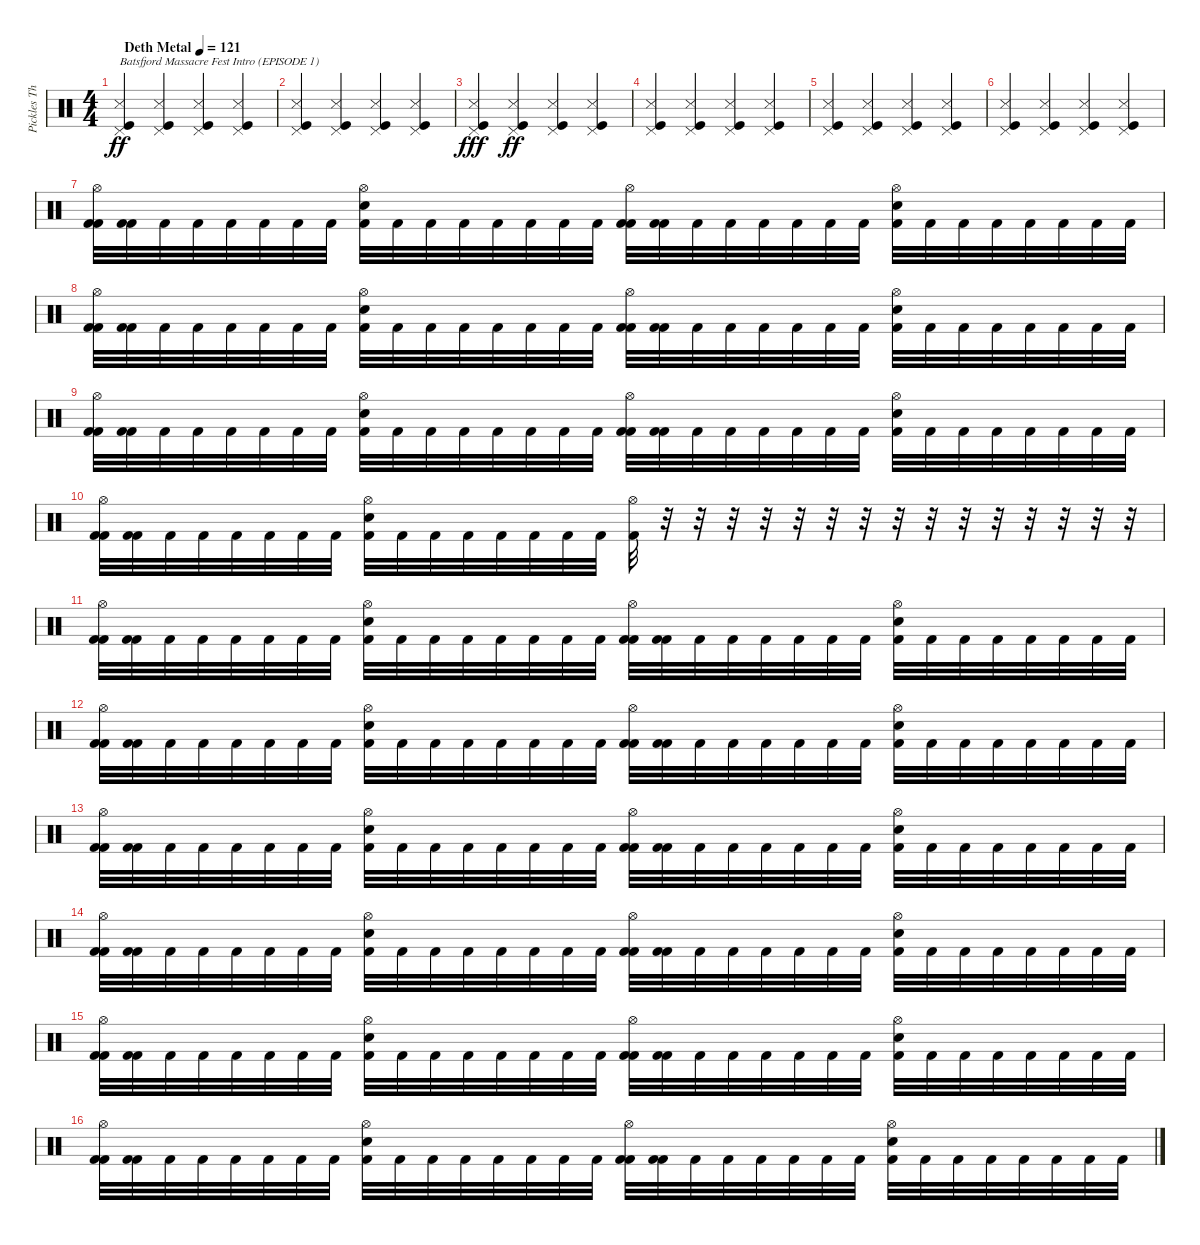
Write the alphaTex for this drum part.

\track ("Pickles The Drummer" "Pickles Th") {instrument percussion bank 4}
\staff {score}
\articulation defaults
\ts (4 4)
\tempo (121 "Deth Metal")
\clef neutral
\ks c
("Pedal Hi-Hat (hit)" "Snare (side stick) 3" "Kick (hit)").4{txt "Batsfjord Massacre Fest Intro (EPISODE 1)" dy ff} ("Pedal Hi-Hat (hit)" "Snare (side stick) 3" "Kick (hit)").4 ("Pedal Hi-Hat (hit)" "Snare (side stick) 3" "Kick (hit)").4 ("Pedal Hi-Hat (hit)" "Snare (side stick) 3" "Kick (hit)").4 |
("Pedal Hi-Hat (hit)" "Snare (side stick) 3" "Kick (hit)").4 ("Pedal Hi-Hat (hit)" "Snare (side stick) 3" "Kick (hit)").4 ("Pedal Hi-Hat (hit)" "Snare (side stick) 3" "Kick (hit)").4 ("Pedal Hi-Hat (hit)" "Snare (side stick) 3" "Kick (hit)").4 |
("Pedal Hi-Hat (hit)" "Snare (side stick) 3" "Kick (hit)").4{dy fff} ("Pedal Hi-Hat (hit)" "Snare (side stick) 3" "Kick (hit)").4{dy ff} ("Pedal Hi-Hat (hit)" "Snare (side stick) 3" "Kick (hit)").4 ("Pedal Hi-Hat (hit)" "Snare (side stick) 3" "Kick (hit)").4 |
("Pedal Hi-Hat (hit)" "Snare (side stick) 3" "Kick (hit)").4 ("Pedal Hi-Hat (hit)" "Snare (side stick) 3" "Kick (hit)").4 ("Pedal Hi-Hat (hit)" "Snare (side stick) 3" "Kick (hit)").4 ("Pedal Hi-Hat (hit)" "Snare (side stick) 3" "Kick (hit)").4 |
("Pedal Hi-Hat (hit)" "Snare (side stick) 3" "Kick (hit)").4 ("Pedal Hi-Hat (hit)" "Snare (side stick) 3" "Kick (hit)").4 ("Pedal Hi-Hat (hit)" "Snare (side stick) 3" "Kick (hit)").4 ("Pedal Hi-Hat (hit)" "Snare (side stick) 3" "Kick (hit)").4 |
("Pedal Hi-Hat (hit)" "Snare (side stick) 3" "Kick (hit)").4 ("Pedal Hi-Hat (hit)" "Snare (side stick) 3" "Kick (hit)").4 ("Pedal Hi-Hat (hit)" "Snare (side stick) 3" "Kick (hit)").4 ("Pedal Hi-Hat (hit)" "Snare (side stick) 3" "Kick (hit)").4 |
("Hi-Hat (open)" "Kick (hit) 2" "Kick (hit) 2").32 ("Kick (hit) 2" "Kick (hit) 2").32 "Kick (hit) 2".32 "Kick (hit) 2".32 "Kick (hit) 2".32 "Kick (hit) 2".32 "Kick (hit) 2".32 "Kick (hit) 2".32 ("Hi-Hat (open)" "Snare (hit) 2" "Kick (hit) 2").32 "Kick (hit) 2".32 "Kick (hit) 2".32 "Kick (hit) 2".32 "Kick (hit) 2".32 "Kick (hit) 2".32 "Kick (hit) 2".32 "Kick (hit) 2".32 ("Hi-Hat (open)" "Kick (hit) 2" "Kick (hit) 2").32 ("Kick (hit) 2" "Kick (hit) 2").32 "Kick (hit) 2".32 "Kick (hit) 2".32 "Kick (hit) 2".32 "Kick (hit) 2".32 "Kick (hit) 2".32 "Kick (hit) 2".32 ("Hi-Hat (open)" "Snare (hit) 2" "Kick (hit) 2").32 "Kick (hit) 2".32 "Kick (hit) 2".32 "Kick (hit) 2".32 "Kick (hit) 2".32 "Kick (hit) 2".32 "Kick (hit) 2".32 "Kick (hit) 2".32 |
("Hi-Hat (open)" "Kick (hit) 2" "Kick (hit) 2").32 ("Kick (hit) 2" "Kick (hit) 2").32 "Kick (hit) 2".32 "Kick (hit) 2".32 "Kick (hit) 2".32 "Kick (hit) 2".32 "Kick (hit) 2".32 "Kick (hit) 2".32 ("Hi-Hat (open)" "Snare (hit) 2" "Kick (hit) 2").32 "Kick (hit) 2".32 "Kick (hit) 2".32 "Kick (hit) 2".32 "Kick (hit) 2".32 "Kick (hit) 2".32 "Kick (hit) 2".32 "Kick (hit) 2".32 ("Hi-Hat (open)" "Kick (hit) 2" "Kick (hit) 2").32 ("Kick (hit) 2" "Kick (hit) 2").32 "Kick (hit) 2".32 "Kick (hit) 2".32 "Kick (hit) 2".32 "Kick (hit) 2".32 "Kick (hit) 2".32 "Kick (hit) 2".32 ("Hi-Hat (open)" "Snare (hit) 2" "Kick (hit) 2").32 "Kick (hit) 2".32 "Kick (hit) 2".32 "Kick (hit) 2".32 "Kick (hit) 2".32 "Kick (hit) 2".32 "Kick (hit) 2".32 "Kick (hit) 2".32 |
("Hi-Hat (open)" "Kick (hit) 2" "Kick (hit) 2").32 ("Kick (hit) 2" "Kick (hit) 2").32 "Kick (hit) 2".32 "Kick (hit) 2".32 "Kick (hit) 2".32 "Kick (hit) 2".32 "Kick (hit) 2".32 "Kick (hit) 2".32 ("Hi-Hat (open)" "Snare (hit) 2" "Kick (hit) 2").32 "Kick (hit) 2".32 "Kick (hit) 2".32 "Kick (hit) 2".32 "Kick (hit) 2".32 "Kick (hit) 2".32 "Kick (hit) 2".32 "Kick (hit) 2".32 ("Hi-Hat (open)" "Kick (hit) 2" "Kick (hit) 2").32 ("Kick (hit) 2" "Kick (hit) 2").32 "Kick (hit) 2".32 "Kick (hit) 2".32 "Kick (hit) 2".32 "Kick (hit) 2".32 "Kick (hit) 2".32 "Kick (hit) 2".32 ("Hi-Hat (open)" "Snare (hit) 2" "Kick (hit) 2").32 "Kick (hit) 2".32 "Kick (hit) 2".32 "Kick (hit) 2".32 "Kick (hit) 2".32 "Kick (hit) 2".32 "Kick (hit) 2".32 "Kick (hit) 2".32 |
("Hi-Hat (open)" "Kick (hit) 2" "Kick (hit) 2").32 ("Kick (hit) 2" "Kick (hit) 2").32 "Kick (hit) 2".32 "Kick (hit) 2".32 "Kick (hit) 2".32 "Kick (hit) 2".32 "Kick (hit) 2".32 "Kick (hit) 2".32 ("Hi-Hat (open)" "Snare (hit) 2" "Kick (hit) 2").32 "Kick (hit) 2".32 "Kick (hit) 2".32 "Kick (hit) 2".32 "Kick (hit) 2".32 "Kick (hit) 2".32 "Kick (hit) 2".32 "Kick (hit) 2".32 ("Hi-Hat (open)" "Kick (hit) 2").32 r.32 r.32 r.32 r.32 r.32 r.32 r.32 r.32 r.32 r.32 r.32 r.32 r.32 r.32 r.32 |
("Hi-Hat (open)" "Kick (hit) 2" "Kick (hit) 2").32 ("Kick (hit) 2" "Kick (hit) 2").32 "Kick (hit) 2".32 "Kick (hit) 2".32 "Kick (hit) 2".32 "Kick (hit) 2".32 "Kick (hit) 2".32 "Kick (hit) 2".32 ("Hi-Hat (open)" "Snare (hit) 2" "Kick (hit) 2").32 "Kick (hit) 2".32 "Kick (hit) 2".32 "Kick (hit) 2".32 "Kick (hit) 2".32 "Kick (hit) 2".32 "Kick (hit) 2".32 "Kick (hit) 2".32 ("Hi-Hat (open)" "Kick (hit) 2" "Kick (hit) 2").32 ("Kick (hit) 2" "Kick (hit) 2").32 "Kick (hit) 2".32 "Kick (hit) 2".32 "Kick (hit) 2".32 "Kick (hit) 2".32 "Kick (hit) 2".32 "Kick (hit) 2".32 ("Hi-Hat (open)" "Snare (hit) 2" "Kick (hit) 2").32 "Kick (hit) 2".32 "Kick (hit) 2".32 "Kick (hit) 2".32 "Kick (hit) 2".32 "Kick (hit) 2".32 "Kick (hit) 2".32 "Kick (hit) 2".32 |
("Hi-Hat (open)" "Kick (hit) 2" "Kick (hit) 2").32 ("Kick (hit) 2" "Kick (hit) 2").32 "Kick (hit) 2".32 "Kick (hit) 2".32 "Kick (hit) 2".32 "Kick (hit) 2".32 "Kick (hit) 2".32 "Kick (hit) 2".32 ("Hi-Hat (open)" "Snare (hit) 2" "Kick (hit) 2").32 "Kick (hit) 2".32 "Kick (hit) 2".32 "Kick (hit) 2".32 "Kick (hit) 2".32 "Kick (hit) 2".32 "Kick (hit) 2".32 "Kick (hit) 2".32 ("Hi-Hat (open)" "Kick (hit) 2" "Kick (hit) 2").32 ("Kick (hit) 2" "Kick (hit) 2").32 "Kick (hit) 2".32 "Kick (hit) 2".32 "Kick (hit) 2".32 "Kick (hit) 2".32 "Kick (hit) 2".32 "Kick (hit) 2".32 ("Hi-Hat (open)" "Snare (hit) 2" "Kick (hit) 2").32 "Kick (hit) 2".32 "Kick (hit) 2".32 "Kick (hit) 2".32 "Kick (hit) 2".32 "Kick (hit) 2".32 "Kick (hit) 2".32 "Kick (hit) 2".32 |
("Hi-Hat (open)" "Kick (hit) 2" "Kick (hit) 2").32 ("Kick (hit) 2" "Kick (hit) 2").32 "Kick (hit) 2".32 "Kick (hit) 2".32 "Kick (hit) 2".32 "Kick (hit) 2".32 "Kick (hit) 2".32 "Kick (hit) 2".32 ("Hi-Hat (open)" "Snare (hit) 2" "Kick (hit) 2").32 "Kick (hit) 2".32 "Kick (hit) 2".32 "Kick (hit) 2".32 "Kick (hit) 2".32 "Kick (hit) 2".32 "Kick (hit) 2".32 "Kick (hit) 2".32 ("Hi-Hat (open)" "Kick (hit) 2" "Kick (hit) 2").32 ("Kick (hit) 2" "Kick (hit) 2").32 "Kick (hit) 2".32 "Kick (hit) 2".32 "Kick (hit) 2".32 "Kick (hit) 2".32 "Kick (hit) 2".32 "Kick (hit) 2".32 ("Hi-Hat (open)" "Snare (hit) 2" "Kick (hit) 2").32 "Kick (hit) 2".32 "Kick (hit) 2".32 "Kick (hit) 2".32 "Kick (hit) 2".32 "Kick (hit) 2".32 "Kick (hit) 2".32 "Kick (hit) 2".32 |
("Hi-Hat (open)" "Kick (hit) 2" "Kick (hit) 2").32 ("Kick (hit) 2" "Kick (hit) 2").32 "Kick (hit) 2".32 "Kick (hit) 2".32 "Kick (hit) 2".32 "Kick (hit) 2".32 "Kick (hit) 2".32 "Kick (hit) 2".32 ("Hi-Hat (open)" "Snare (hit) 2" "Kick (hit) 2").32 "Kick (hit) 2".32 "Kick (hit) 2".32 "Kick (hit) 2".32 "Kick (hit) 2".32 "Kick (hit) 2".32 "Kick (hit) 2".32 "Kick (hit) 2".32 ("Hi-Hat (open)" "Kick (hit) 2" "Kick (hit) 2").32 ("Kick (hit) 2" "Kick (hit) 2").32 "Kick (hit) 2".32 "Kick (hit) 2".32 "Kick (hit) 2".32 "Kick (hit) 2".32 "Kick (hit) 2".32 "Kick (hit) 2".32 ("Hi-Hat (open)" "Snare (hit) 2" "Kick (hit) 2").32 "Kick (hit) 2".32 "Kick (hit) 2".32 "Kick (hit) 2".32 "Kick (hit) 2".32 "Kick (hit) 2".32 "Kick (hit) 2".32 "Kick (hit) 2".32 |
("Hi-Hat (open)" "Kick (hit) 2" "Kick (hit) 2").32 ("Kick (hit) 2" "Kick (hit) 2").32 "Kick (hit) 2".32 "Kick (hit) 2".32 "Kick (hit) 2".32 "Kick (hit) 2".32 "Kick (hit) 2".32 "Kick (hit) 2".32 ("Hi-Hat (open)" "Snare (hit) 2" "Kick (hit) 2").32 "Kick (hit) 2".32 "Kick (hit) 2".32 "Kick (hit) 2".32 "Kick (hit) 2".32 "Kick (hit) 2".32 "Kick (hit) 2".32 "Kick (hit) 2".32 ("Hi-Hat (open)" "Kick (hit) 2" "Kick (hit) 2").32 ("Kick (hit) 2" "Kick (hit) 2").32 "Kick (hit) 2".32 "Kick (hit) 2".32 "Kick (hit) 2".32 "Kick (hit) 2".32 "Kick (hit) 2".32 "Kick (hit) 2".32 ("Hi-Hat (open)" "Snare (hit) 2" "Kick (hit) 2").32 "Kick (hit) 2".32 "Kick (hit) 2".32 "Kick (hit) 2".32 "Kick (hit) 2".32 "Kick (hit) 2".32 "Kick (hit) 2".32 "Kick (hit) 2".32 |
("Hi-Hat (open)" "Kick (hit) 2" "Kick (hit) 2").32 ("Kick (hit) 2" "Kick (hit) 2").32 "Kick (hit) 2".32 "Kick (hit) 2".32 "Kick (hit) 2".32 "Kick (hit) 2".32 "Kick (hit) 2".32 "Kick (hit) 2".32 ("Hi-Hat (open)" "Snare (hit) 2" "Kick (hit) 2").32 "Kick (hit) 2".32 "Kick (hit) 2".32 "Kick (hit) 2".32 "Kick (hit) 2".32 "Kick (hit) 2".32 "Kick (hit) 2".32 "Kick (hit) 2".32 ("Hi-Hat (open)" "Kick (hit) 2" "Kick (hit) 2").32 ("Kick (hit) 2" "Kick (hit) 2").32 "Kick (hit) 2".32 "Kick (hit) 2".32 "Kick (hit) 2".32 "Kick (hit) 2".32 "Kick (hit) 2".32 "Kick (hit) 2".32 ("Hi-Hat (open)" "Snare (hit) 2" "Kick (hit) 2").32 "Kick (hit) 2".32 "Kick (hit) 2".32 "Kick (hit) 2".32 "Kick (hit) 2".32 "Kick (hit) 2".32 "Kick (hit) 2".32 "Kick (hit) 2".32
